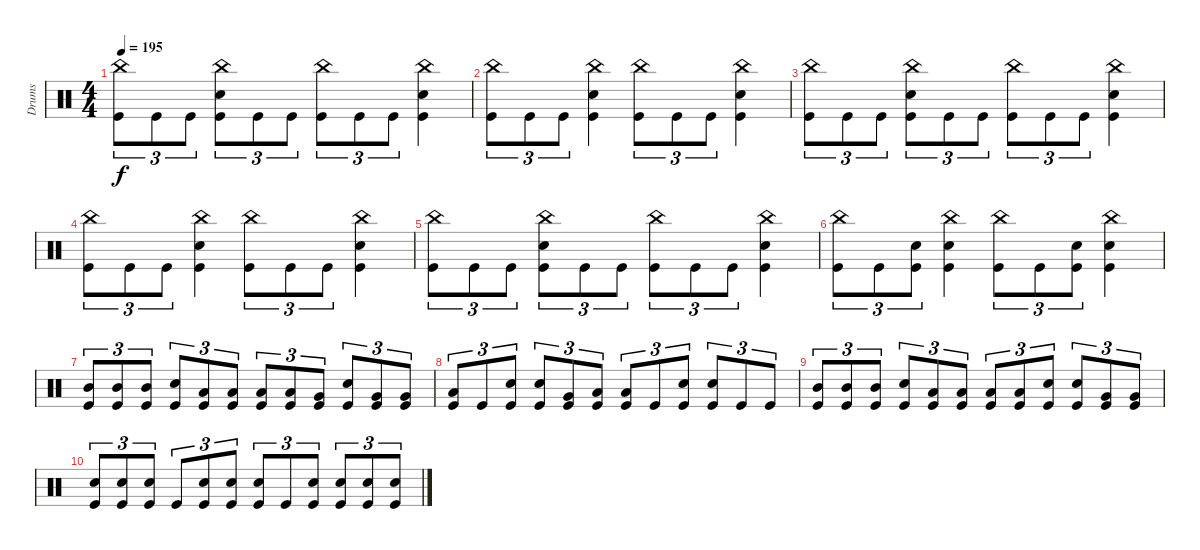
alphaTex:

\track ("Drums" "Drums") {instrument percussion}
\staff {score}
\articulation defaults
\ts (4 4)
\tempo 195
\clef neutral
\ks c
("China (hit)" "Kick (hit)").8{tu (3 2) dy f} "Kick (hit)".8{tu (3 2)} "Kick (hit)".8{tu (3 2)} ("China (hit)" "Snare (hit) 2" "Kick (hit)").8{tu (3 2)} "Kick (hit)".8{tu (3 2)} "Kick (hit)".8{tu (3 2)} ("China (hit)" "Kick (hit)").8{tu (3 2)} "Kick (hit)".8{tu (3 2)} "Kick (hit)".8{tu (3 2)} ("China (hit)" "Snare (hit) 2" "Kick (hit)").4 |
("China (hit)" "Kick (hit)").8{tu (3 2)} "Kick (hit)".8{tu (3 2)} "Kick (hit)".8{tu (3 2)} ("China (hit)" "Snare (hit) 2" "Kick (hit)").4 ("China (hit)" "Kick (hit)").8{tu (3 2)} "Kick (hit)".8{tu (3 2)} "Kick (hit)".8{tu (3 2)} ("China (hit)" "Snare (hit) 2" "Kick (hit)").4 |
("China (hit)" "Kick (hit)").8{tu (3 2)} "Kick (hit)".8{tu (3 2)} "Kick (hit)".8{tu (3 2)} ("China (hit)" "Snare (hit) 2" "Kick (hit)").8{tu (3 2)} "Kick (hit)".8{tu (3 2)} "Kick (hit)".8{tu (3 2)} ("China (hit)" "Kick (hit)").8{tu (3 2)} "Kick (hit)".8{tu (3 2)} "Kick (hit)".8{tu (3 2)} ("China (hit)" "Snare (hit) 2" "Kick (hit)").4 |
("China (hit)" "Kick (hit)").8{tu (3 2)} "Kick (hit)".8{tu (3 2)} "Kick (hit)".8{tu (3 2)} ("China (hit)" "Snare (hit) 2" "Kick (hit)").4 ("China (hit)" "Kick (hit)").8{tu (3 2)} "Kick (hit)".8{tu (3 2)} "Kick (hit)".8{tu (3 2)} ("China (hit)" "Snare (hit) 2" "Kick (hit)").4 |
("China (hit)" "Kick (hit)").8{tu (3 2)} "Kick (hit)".8{tu (3 2)} "Kick (hit)".8{tu (3 2)} ("China (hit)" "Snare (hit) 2" "Kick (hit)").8{tu (3 2)} "Kick (hit)".8{tu (3 2)} "Kick (hit)".8{tu (3 2)} ("China (hit)" "Kick (hit)").8{tu (3 2)} "Kick (hit)".8{tu (3 2)} "Kick (hit)".8{tu (3 2)} ("China (hit)" "Snare (hit) 2" "Kick (hit)").4 |
("China (hit)" "Kick (hit)").8{tu (3 2)} "Kick (hit)".8{tu (3 2)} ("Snare (hit) 2" "Kick (hit)").8{tu (3 2)} ("China (hit)" "Snare (hit) 2" "Kick (hit)").4 ("China (hit)" "Kick (hit)").8{tu (3 2)} "Kick (hit)".8{tu (3 2)} ("Snare (hit) 2" "Kick (hit)").8{tu (3 2)} ("China (hit)" "Snare (hit) 2" "Kick (hit)").4 |
("Mid Tom (hit)" "Kick (hit)").8{tu (3 2)} ("Mid Tom (hit)" "Kick (hit)").8{tu (3 2)} ("Mid Tom (hit)" "Kick (hit)").8{tu (3 2)} ("Snare (hit) 2" "Kick (hit)").8{tu (3 2)} ("Low Tom (hit)" "Kick (hit)").8{tu (3 2)} ("Low Tom (hit)" "Kick (hit)").8{tu (3 2)} ("Low Tom (hit)" "Kick (hit)").8{tu (3 2)} ("Low Tom (hit)" "Kick (hit)").8{tu (3 2)} ("Very Low Tom (hit)" "Kick (hit)").8{tu (3 2)} ("Snare (hit) 2" "Kick (hit)").8{tu (3 2)} ("Very Low Tom (hit)" "Kick (hit)").8{tu (3 2)} ("Very Low Tom (hit)" "Kick (hit)").8{tu (3 2)} |
("Low Floor Tom (hit)" "Kick (hit)").8{tu (3 2)} "Kick (hit)".8{tu (3 2)} ("Snare (hit) 2" "Kick (hit)").8{tu (3 2)} ("Snare (hit) 2" "Kick (hit)").8{tu (3 2)} ("Very Low Tom (hit)" "Kick (hit)").8{tu (3 2)} ("Low Floor Tom (hit)" "Kick (hit)").8{tu (3 2)} ("Low Floor Tom (hit)" "Kick (hit)").8{tu (3 2)} "Kick (hit)".8{tu (3 2)} ("Snare (hit) 2" "Kick (hit)").8{tu (3 2)} ("Snare (hit) 2" "Kick (hit)").8{tu (3 2)} "Kick (hit)".8{tu (3 2)} "Kick (hit)".8{tu (3 2)} |
("Mid Tom (hit)" "Kick (hit)").8{tu (3 2)} ("Mid Tom (hit)" "Kick (hit)").8{tu (3 2)} ("Mid Tom (hit)" "Kick (hit)").8{tu (3 2)} ("Snare (hit) 2" "Kick (hit)").8{tu (3 2)} ("Low Tom (hit)" "Kick (hit)").8{tu (3 2)} ("Low Tom (hit)" "Kick (hit)").8{tu (3 2)} ("Low Tom (hit)" "Kick (hit)").8{tu (3 2)} ("Low Tom (hit)" "Kick (hit)").8{tu (3 2)} ("Snare (hit) 2" "Kick (hit)").8{tu (3 2)} ("Snare (hit) 2" "Kick (hit)").8{tu (3 2)} ("Very Low Tom (hit)" "Kick (hit)").8{tu (3 2)} ("Very Low Tom (hit)" "Kick (hit)").8{tu (3 2)} |
("Snare (hit) 2" "Kick (hit)").8{tu (3 2)} ("Snare (hit) 2" "Kick (hit)").8{tu (3 2)} ("Snare (hit) 2" "Kick (hit)").8{tu (3 2)} "Kick (hit)".8{tu (3 2)} ("Snare (hit) 2" "Kick (hit)").8{tu (3 2)} ("Snare (hit) 2" "Kick (hit)").8{tu (3 2)} ("Snare (hit) 2" "Kick (hit)").8{tu (3 2)} "Kick (hit)".8{tu (3 2)} ("Snare (hit) 2" "Kick (hit)").8{tu (3 2)} ("Snare (hit) 2" "Kick (hit)").8{tu (3 2)} ("Snare (hit) 2" "Kick (hit)").8{tu (3 2)} ("Snare (hit) 2" "Kick (hit)").8{tu (3 2)}
